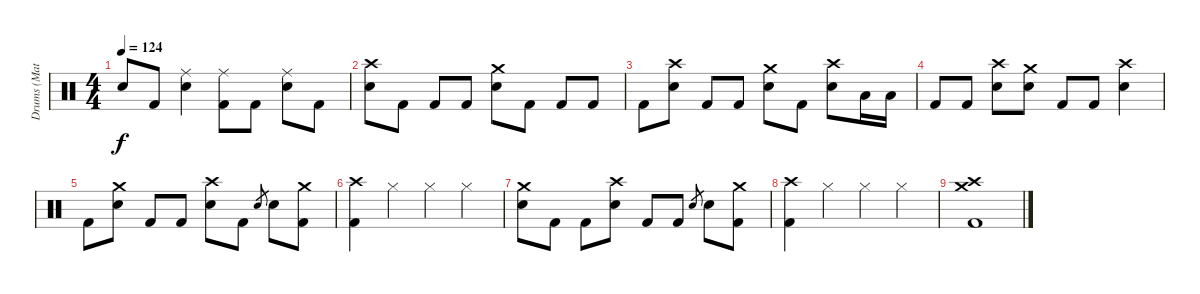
\track ("Drums (Matt)" "Drums (Mat") {instrument percussion}
\staff {score}
\articulation defaults
\ts (4 4)
\tempo 124
\clef neutral
\ks c "Snare (hit)"{t}.8{dy f} "Kick (hit) 2".8
("Ride (middle)" "Snare (hit) 2").4 ("Ride (middle)" "Kick (hit) 2").8 "Kick (hit) 2".8 ("Ride (middle)" "Snare (hit) 2").8 "Kick (hit) 2".8 |
("Crash high (hit)" "Snare (hit) 2").8 "Kick (hit) 2".8 "Kick (hit) 2".8 "Kick (hit) 2".8 ("Crash medium (hit)" "Snare (hit) 2").8 "Kick (hit) 2".8 "Kick (hit) 2".8 "Kick (hit) 2".8 |
"Kick (hit) 2".8 ("Crash high (hit)" "Snare (hit) 2").8 "Kick (hit) 2".8 "Kick (hit) 2".8 ("Crash medium (hit)" "Snare (hit) 2").8 "Kick (hit) 2".8 ("Crash high (hit)" "Snare (hit) 2").8 "Low Tom (hit)".16 "Low Tom (hit)".16 |
"Kick (hit) 2".8 "Kick (hit) 2".8 ("Crash high (hit)" "Snare (hit) 2").8 ("Crash medium (hit)" "Snare (hit) 2").8 "Kick (hit) 2".8 "Kick (hit) 2".8 ("Crash high (hit)" "Snare (hit) 2").4 |
"Kick (hit) 2".8 ("Crash medium (hit)" "Snare (hit) 2").8 "Kick (hit) 2".8 "Kick (hit) 2".8 ("Crash high (hit)" "Snare (hit) 2").8 "Kick (hit) 2".8 "Snare (hit) 2".8{gr} "Snare (hit) 2".8 ("Crash medium (hit)" "Kick (hit) 2").8 |
("Crash high (hit)" "Kick (hit) 2").4 "Hi-Hat (closed)".4 "Hi-Hat (closed)".4 "Hi-Hat (closed)".4 |
("Crash medium (hit)" "Snare (hit) 2").8 "Kick (hit) 2".8 "Kick (hit) 2".8 ("Crash high (hit)" "Snare (hit) 2").8 "Kick (hit) 2".8 "Kick (hit) 2".8 "Snare (hit) 2".8{gr} "Snare (hit) 2".8 ("Crash medium (hit)" "Kick (hit) 2").8 |
("Crash high (hit)" "Kick (hit) 2").4 "Hi-Hat (closed)".4 "Hi-Hat (closed)".4 "Hi-Hat (closed)".4 |
("Crash high (hit)" "Crash medium (hit)" "Kick (hit) 2").1
